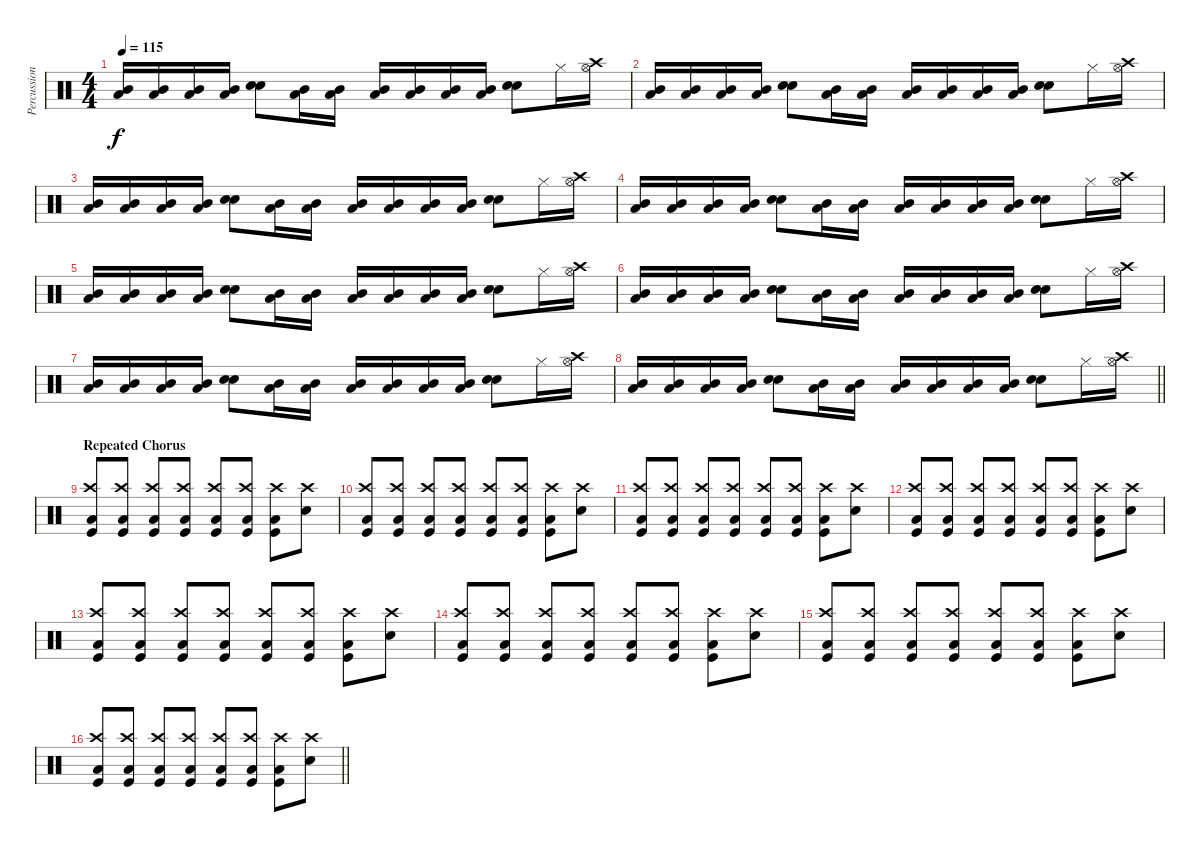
\track ("Percussion" "Percussion") {instrument percussion}
\staff {score}
\articulation defaults
\ts (4 4)
\tempo 115
\clef neutral
\ks c
("Low Tom (hit)" "Mid Tom (hit)").16{dy f} ("Low Tom (hit)" "Mid Tom (hit)").16 ("Low Tom (hit)" "Mid Tom (hit)").16 ("Low Tom (hit)" "Mid Tom (hit)").16 ("Snare (hit) 2" "Electric Snare (hit)").8 ("Low Tom (hit)" "Mid Tom (hit)").16 ("Low Tom (hit)" "Mid Tom (hit)").16 ("Low Tom (hit)" "Mid Tom (hit)").16 ("Low Tom (hit)" "Mid Tom (hit)").16 ("Low Tom (hit)" "Mid Tom (hit)").16 ("Low Tom (hit)" "Mid Tom (hit)").16 ("Snare (hit) 2" "Electric Snare (hit)").8 "Hi-Hat (closed)".16 ("Hi-Hat (open)" "Crash high (hit)").16 |
("Low Tom (hit)" "Mid Tom (hit)").16 ("Low Tom (hit)" "Mid Tom (hit)").16 ("Low Tom (hit)" "Mid Tom (hit)").16 ("Low Tom (hit)" "Mid Tom (hit)").16 ("Snare (hit) 2" "Electric Snare (hit)").8 ("Low Tom (hit)" "Mid Tom (hit)").16 ("Low Tom (hit)" "Mid Tom (hit)").16 ("Low Tom (hit)" "Mid Tom (hit)").16 ("Low Tom (hit)" "Mid Tom (hit)").16 ("Low Tom (hit)" "Mid Tom (hit)").16 ("Low Tom (hit)" "Mid Tom (hit)").16 ("Snare (hit) 2" "Electric Snare (hit)").8 "Hi-Hat (closed)".16 ("Hi-Hat (open)" "Crash high (hit)").16 |
("Low Tom (hit)" "Mid Tom (hit)").16 ("Low Tom (hit)" "Mid Tom (hit)").16 ("Low Tom (hit)" "Mid Tom (hit)").16 ("Low Tom (hit)" "Mid Tom (hit)").16 ("Snare (hit) 2" "Electric Snare (hit)").8 ("Low Tom (hit)" "Mid Tom (hit)").16 ("Low Tom (hit)" "Mid Tom (hit)").16 ("Low Tom (hit)" "Mid Tom (hit)").16 ("Low Tom (hit)" "Mid Tom (hit)").16 ("Low Tom (hit)" "Mid Tom (hit)").16 ("Low Tom (hit)" "Mid Tom (hit)").16 ("Snare (hit) 2" "Electric Snare (hit)").8 "Hi-Hat (closed)".16 ("Hi-Hat (open)" "Crash high (hit)").16 |
("Low Tom (hit)" "Mid Tom (hit)").16 ("Low Tom (hit)" "Mid Tom (hit)").16 ("Low Tom (hit)" "Mid Tom (hit)").16 ("Low Tom (hit)" "Mid Tom (hit)").16 ("Snare (hit) 2" "Electric Snare (hit)").8 ("Low Tom (hit)" "Mid Tom (hit)").16 ("Low Tom (hit)" "Mid Tom (hit)").16 ("Low Tom (hit)" "Mid Tom (hit)").16 ("Low Tom (hit)" "Mid Tom (hit)").16 ("Low Tom (hit)" "Mid Tom (hit)").16 ("Low Tom (hit)" "Mid Tom (hit)").16 ("Snare (hit) 2" "Electric Snare (hit)").8 "Hi-Hat (closed)".16 ("Hi-Hat (open)" "Crash high (hit)").16 |
("Low Tom (hit)" "Mid Tom (hit)").16 ("Low Tom (hit)" "Mid Tom (hit)").16 ("Low Tom (hit)" "Mid Tom (hit)").16 ("Low Tom (hit)" "Mid Tom (hit)").16 ("Snare (hit) 2" "Electric Snare (hit)").8 ("Low Tom (hit)" "Mid Tom (hit)").16 ("Low Tom (hit)" "Mid Tom (hit)").16 ("Low Tom (hit)" "Mid Tom (hit)").16 ("Low Tom (hit)" "Mid Tom (hit)").16 ("Low Tom (hit)" "Mid Tom (hit)").16 ("Low Tom (hit)" "Mid Tom (hit)").16 ("Snare (hit) 2" "Electric Snare (hit)").8 "Hi-Hat (closed)".16 ("Hi-Hat (open)" "Crash high (hit)").16 |
("Low Tom (hit)" "Mid Tom (hit)").16 ("Low Tom (hit)" "Mid Tom (hit)").16 ("Low Tom (hit)" "Mid Tom (hit)").16 ("Low Tom (hit)" "Mid Tom (hit)").16 ("Snare (hit) 2" "Electric Snare (hit)").8 ("Low Tom (hit)" "Mid Tom (hit)").16 ("Low Tom (hit)" "Mid Tom (hit)").16 ("Low Tom (hit)" "Mid Tom (hit)").16 ("Low Tom (hit)" "Mid Tom (hit)").16 ("Low Tom (hit)" "Mid Tom (hit)").16 ("Low Tom (hit)" "Mid Tom (hit)").16 ("Snare (hit) 2" "Electric Snare (hit)").8 "Hi-Hat (closed)".16 ("Hi-Hat (open)" "Crash high (hit)").16 |
("Low Tom (hit)" "Mid Tom (hit)").16 ("Low Tom (hit)" "Mid Tom (hit)").16 ("Low Tom (hit)" "Mid Tom (hit)").16 ("Low Tom (hit)" "Mid Tom (hit)").16 ("Snare (hit) 2" "Electric Snare (hit)").8 ("Low Tom (hit)" "Mid Tom (hit)").16 ("Low Tom (hit)" "Mid Tom (hit)").16 ("Low Tom (hit)" "Mid Tom (hit)").16 ("Low Tom (hit)" "Mid Tom (hit)").16 ("Low Tom (hit)" "Mid Tom (hit)").16 ("Low Tom (hit)" "Mid Tom (hit)").16 ("Snare (hit) 2" "Electric Snare (hit)").8 "Hi-Hat (closed)".16 ("Hi-Hat (open)" "Crash high (hit)").16 |
\barLineRight lightlight
("Low Tom (hit)" "Mid Tom (hit)").16 ("Low Tom (hit)" "Mid Tom (hit)").16 ("Low Tom (hit)" "Mid Tom (hit)").16 ("Low Tom (hit)" "Mid Tom (hit)").16 ("Snare (hit) 2" "Electric Snare (hit)").8 ("Low Tom (hit)" "Mid Tom (hit)").16 ("Low Tom (hit)" "Mid Tom (hit)").16 ("Low Tom (hit)" "Mid Tom (hit)").16 ("Low Tom (hit)" "Mid Tom (hit)").16 ("Low Tom (hit)" "Mid Tom (hit)").16 ("Low Tom (hit)" "Mid Tom (hit)").16 ("Snare (hit) 2" "Electric Snare (hit)").8 "Hi-Hat (closed)".16 ("Hi-Hat (open)" "Crash high (hit)").16 |
\section ("" "Repeated Chorus")
("Crash high (hit)" "Kick (hit)" "Low Tom (hit)").8 ("Crash high (hit)" "Kick (hit)" "Low Tom (hit)").8 ("Crash high (hit)" "Kick (hit)" "Low Tom (hit)").8 ("Crash high (hit)" "Kick (hit)" "Low Tom (hit)").8 ("Crash high (hit)" "Kick (hit)" "Low Tom (hit)").8 ("Crash high (hit)" "Kick (hit)" "Low Tom (hit)").8 ("Crash high (hit)" "Kick (hit)" "Low Tom (hit)").8 ("Crash high (hit)" "Snare (hit) 2").8 |
("Crash high (hit)" "Kick (hit)" "Low Tom (hit)").8 ("Crash high (hit)" "Kick (hit)" "Low Tom (hit)").8 ("Crash high (hit)" "Kick (hit)" "Low Tom (hit)").8 ("Crash high (hit)" "Kick (hit)" "Low Tom (hit)").8 ("Crash high (hit)" "Kick (hit)" "Low Tom (hit)").8 ("Crash high (hit)" "Kick (hit)" "Low Tom (hit)").8 ("Crash high (hit)" "Kick (hit)" "Low Tom (hit)").8 ("Crash high (hit)" "Snare (hit) 2").8 |
("Crash high (hit)" "Kick (hit)" "Low Tom (hit)").8 ("Crash high (hit)" "Kick (hit)" "Low Tom (hit)").8 ("Crash high (hit)" "Kick (hit)" "Low Tom (hit)").8 ("Crash high (hit)" "Kick (hit)" "Low Tom (hit)").8 ("Crash high (hit)" "Kick (hit)" "Low Tom (hit)").8 ("Crash high (hit)" "Kick (hit)" "Low Tom (hit)").8 ("Crash high (hit)" "Kick (hit)" "Low Tom (hit)").8 ("Crash high (hit)" "Snare (hit) 2").8 |
("Crash high (hit)" "Kick (hit)" "Low Tom (hit)").8 ("Crash high (hit)" "Kick (hit)" "Low Tom (hit)").8 ("Crash high (hit)" "Kick (hit)" "Low Tom (hit)").8 ("Crash high (hit)" "Kick (hit)" "Low Tom (hit)").8 ("Crash high (hit)" "Kick (hit)" "Low Tom (hit)").8 ("Crash high (hit)" "Kick (hit)" "Low Tom (hit)").8 ("Crash high (hit)" "Kick (hit)" "Low Tom (hit)").8 ("Crash high (hit)" "Snare (hit) 2").8 |
("Crash high (hit)" "Kick (hit)" "Low Tom (hit)").8 ("Crash high (hit)" "Kick (hit)" "Low Tom (hit)").8 ("Crash high (hit)" "Kick (hit)" "Low Tom (hit)").8 ("Crash high (hit)" "Kick (hit)" "Low Tom (hit)").8 ("Crash high (hit)" "Kick (hit)" "Low Tom (hit)").8 ("Crash high (hit)" "Kick (hit)" "Low Tom (hit)").8 ("Crash high (hit)" "Kick (hit)" "Low Tom (hit)").8 ("Crash high (hit)" "Snare (hit) 2").8 |
("Crash high (hit)" "Kick (hit)" "Low Tom (hit)").8 ("Crash high (hit)" "Kick (hit)" "Low Tom (hit)").8 ("Crash high (hit)" "Kick (hit)" "Low Tom (hit)").8 ("Crash high (hit)" "Kick (hit)" "Low Tom (hit)").8 ("Crash high (hit)" "Kick (hit)" "Low Tom (hit)").8 ("Crash high (hit)" "Kick (hit)" "Low Tom (hit)").8 ("Crash high (hit)" "Kick (hit)" "Low Tom (hit)").8 ("Crash high (hit)" "Snare (hit) 2").8 |
("Crash high (hit)" "Kick (hit)" "Low Tom (hit)").8 ("Crash high (hit)" "Kick (hit)" "Low Tom (hit)").8 ("Crash high (hit)" "Kick (hit)" "Low Tom (hit)").8 ("Crash high (hit)" "Kick (hit)" "Low Tom (hit)").8 ("Crash high (hit)" "Kick (hit)" "Low Tom (hit)").8 ("Crash high (hit)" "Kick (hit)" "Low Tom (hit)").8 ("Crash high (hit)" "Kick (hit)" "Low Tom (hit)").8 ("Crash high (hit)" "Snare (hit) 2").8 |
\barLineRight lightlight
("Crash high (hit)" "Kick (hit)" "Low Tom (hit)").8 ("Crash high (hit)" "Kick (hit)" "Low Tom (hit)").8 ("Crash high (hit)" "Kick (hit)" "Low Tom (hit)").8 ("Crash high (hit)" "Kick (hit)" "Low Tom (hit)").8 ("Crash high (hit)" "Kick (hit)" "Low Tom (hit)").8 ("Crash high (hit)" "Kick (hit)" "Low Tom (hit)").8 ("Crash high (hit)" "Kick (hit)" "Low Tom (hit)").8 ("Crash high (hit)" "Snare (hit) 2").8
